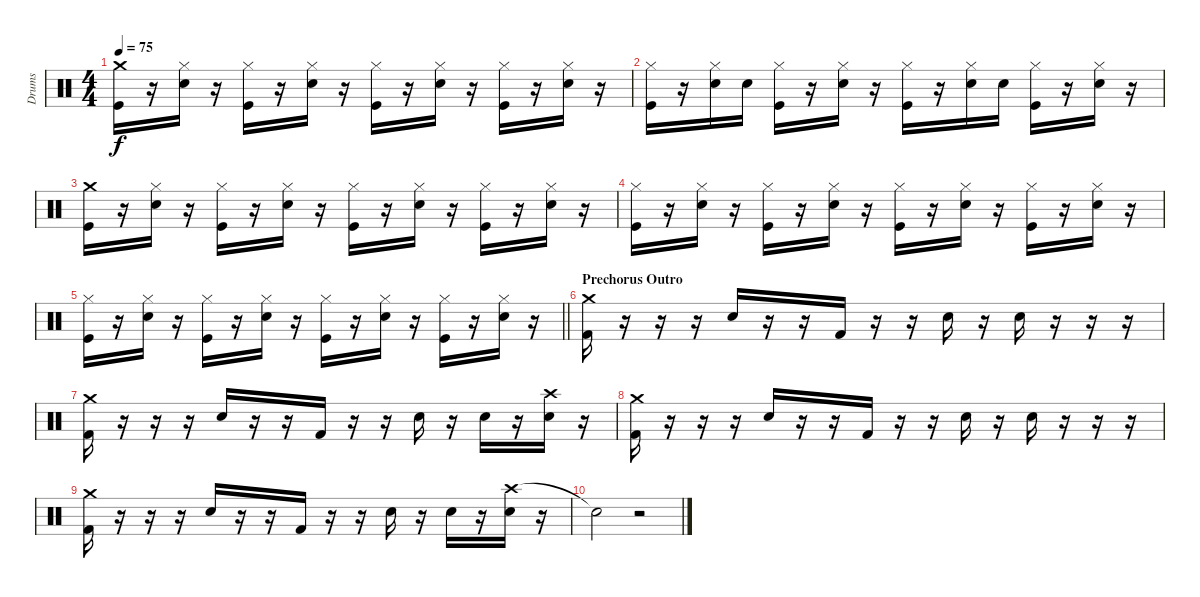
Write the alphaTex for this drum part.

\track ("Drums" "Drums") {instrument percussion}
\staff {score}
\articulation defaults
\ts (4 4)
\tempo 75
\clef neutral
\ks c
("Crash medium (hit)" "Kick (hit)").16{dy f} r.16 ("Hi-Hat (closed)" "Electric Snare (hit)").16 r.16 ("Hi-Hat (closed)" "Kick (hit)").16 r.16 ("Hi-Hat (closed)" "Electric Snare (hit)").16 r.16 ("Hi-Hat (closed)" "Kick (hit)").16 r.16 ("Hi-Hat (closed)" "Electric Snare (hit)").16 r.16 ("Hi-Hat (closed)" "Kick (hit)").16 r.16 ("Hi-Hat (closed)" "Electric Snare (hit)").16 r.16 |
("Hi-Hat (closed)" "Kick (hit)").16 r.16 ("Hi-Hat (closed)" "Electric Snare (hit)").16 "Electric Snare (hit)".16 ("Hi-Hat (closed)" "Kick (hit)").16 r.16 ("Hi-Hat (closed)" "Electric Snare (hit)").16 r.16 ("Hi-Hat (closed)" "Kick (hit)").16 r.16 ("Hi-Hat (closed)" "Electric Snare (hit)").16 "Electric Snare (hit)".16 ("Hi-Hat (closed)" "Kick (hit)").16 r.16 ("Hi-Hat (closed)" "Electric Snare (hit)").16 r.16 |
("Crash medium (hit)" "Kick (hit)").16 r.16 ("Hi-Hat (closed)" "Electric Snare (hit)").16 r.16 ("Hi-Hat (closed)" "Kick (hit)").16 r.16 ("Hi-Hat (closed)" "Electric Snare (hit)").16 r.16 ("Hi-Hat (closed)" "Kick (hit)").16 r.16 ("Hi-Hat (closed)" "Electric Snare (hit)").16 r.16 ("Hi-Hat (closed)" "Kick (hit)").16 r.16 ("Hi-Hat (closed)" "Electric Snare (hit)").16 r.16 |
("Hi-Hat (closed)" "Kick (hit)").16 r.16 ("Hi-Hat (closed)" "Electric Snare (hit)").16 r.16 ("Hi-Hat (closed)" "Kick (hit)").16 r.16 ("Hi-Hat (closed)" "Electric Snare (hit)").16 r.16 ("Hi-Hat (closed)" "Kick (hit)").16 r.16 ("Hi-Hat (closed)" "Electric Snare (hit)").16 r.16 ("Hi-Hat (closed)" "Kick (hit)").16 r.16 ("Hi-Hat (closed)" "Electric Snare (hit)").16 r.16 |
\barLineRight lightlight
("Hi-Hat (closed)" "Kick (hit)").16 r.16 ("Hi-Hat (closed)" "Electric Snare (hit)").16 r.16 ("Hi-Hat (closed)" "Kick (hit)").16 r.16 ("Hi-Hat (closed)" "Electric Snare (hit)").16 r.16 ("Hi-Hat (closed)" "Kick (hit)").16 r.16 ("Hi-Hat (closed)" "Electric Snare (hit)").16 r.16 ("Hi-Hat (closed)" "Kick (hit)").16 r.16 ("Hi-Hat (closed)" "Electric Snare (hit)").16 r.16 |
\section ("" "Prechorus Outro")
("Crash medium (hit)" "Kick (hit) 2").16 r.16 r.16 r.16 "Snare (hit) 2".16 r.16 r.16 "Kick (hit) 2".16 r.16 r.16 "Snare (hit) 2".16 r.16 "Snare (hit) 2".16 r.16 r.16 r.16 |
("Crash medium (hit)" "Kick (hit) 2").16 r.16 r.16 r.16 "Snare (hit) 2".16 r.16 r.16 "Kick (hit) 2".16 r.16 r.16 "Snare (hit) 2".16 r.16 "Snare (hit) 2".16 r.16 ("Crash high (hit)" "Snare (hit) 2").16 r.16 |
("Crash medium (hit)" "Kick (hit) 2").16 r.16 r.16 r.16 "Snare (hit) 2".16 r.16 r.16 "Kick (hit) 2".16 r.16 r.16 "Snare (hit) 2".16 r.16 "Snare (hit) 2".16 r.16 r.16 r.16 |
("Crash medium (hit)" "Kick (hit) 2").16 r.16 r.16 r.16 "Snare (hit) 2".16 r.16 r.16 "Kick (hit) 2".16 r.16 r.16 "Snare (hit) 2".16 r.16 "Snare (hit) 2".16 r.16 ("Crash high (hit)" "Snare (hit) 2").16 r.16 |
"Snare (hit)"{t}.2 r.2
